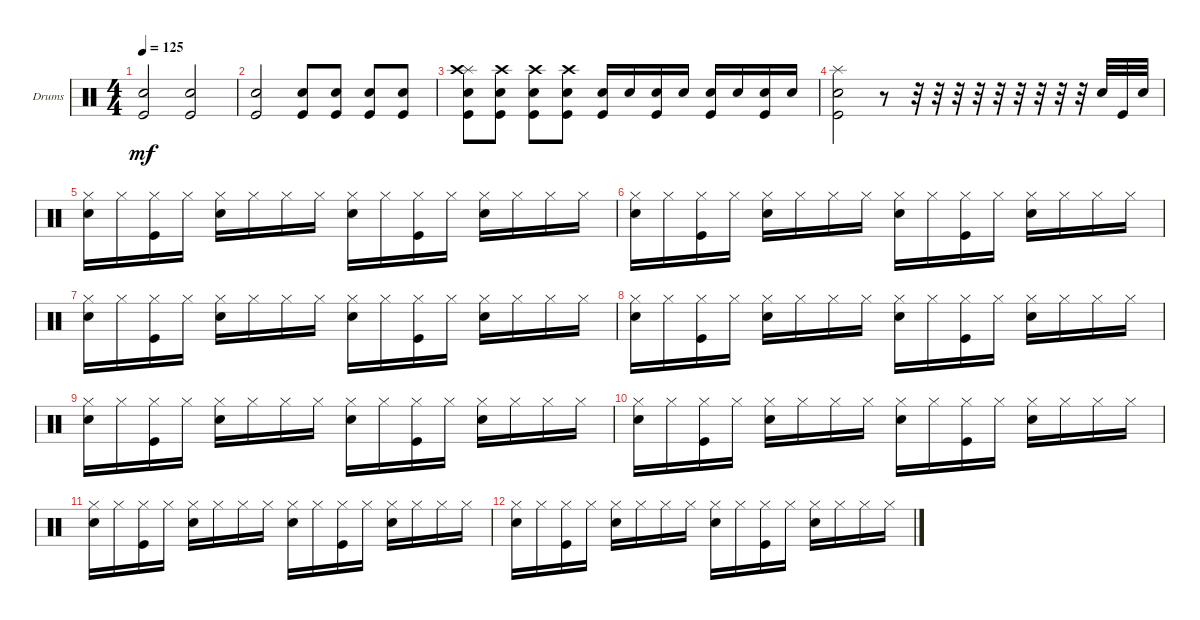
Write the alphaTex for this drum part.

\defaultSystemsLayout 4
\bracketExtendMode groupsimilarinstruments
\firstSystemTrackNameOrientation horizontal
\otherSystemsTrackNameOrientation horizontal
\track ("Drumkit" "Drums") {instrument percussion}
\staff {score}
\articulation defaults
\ts (4 4)
\tempo 125
\clef neutral
\scale
0.472222
\ks c
("Kick (hit)" "Snare (hit) 2").2{dy mf} ("Kick (hit)" "Snare (hit) 2").2 |
\scale
0.263889 ("Kick (hit)" "Snare (hit) 2").2 ("Kick (hit)" "Snare (hit) 2").8 ("Kick (hit)" "Snare (hit) 2").8 ("Kick (hit)" "Snare (hit) 2").8 ("Kick (hit)" "Snare (hit) 2").8 |
\scale
0.263889 ("Kick (hit)" "Snare (hit) 2" "Splash (hit)" "Crash high (hit)").8 ("Kick (hit)" "Snare (hit) 2" "Crash high (hit)").8 ("Kick (hit)" "Snare (hit) 2" "Crash high (hit)").8 ("Kick (hit)" "Snare (hit) 2" "Crash high (hit)").8 ("Kick (hit)" "Snare (hit) 2").16 "Snare (hit) 2".16 ("Kick (hit)" "Snare (hit) 2").16 "Snare (hit) 2".16 ("Kick (hit)" "Snare (hit) 2").16 "Snare (hit) 2".16 ("Kick (hit)" "Snare (hit) 2").16 "Snare (hit) 2".16 |
("Kick (hit)" "Snare (hit) 2" "Splash (hit)").2 r.8 r.32 r.32 r.32 r.32 r.32 r.32 r.32 r.32 r.32 "Snare (hit) 2".32 "Kick (hit)".32 "Snare (hit) 2".32 |
("Hi-Hat (closed)" "Snare (hit) 2").16 "Hi-Hat (closed)".16 ("Hi-Hat (closed)" "Kick (hit)").16 "Hi-Hat (closed)".16 ("Hi-Hat (closed)" "Snare (hit) 2").16 "Hi-Hat (closed)".16 "Hi-Hat (closed)".16 "Hi-Hat (closed)".16 ("Hi-Hat (closed)" "Snare (hit) 2").16 "Hi-Hat (closed)".16 ("Hi-Hat (closed)" "Kick (hit)").16 "Hi-Hat (closed)".16 ("Hi-Hat (closed)" "Snare (hit) 2").16 "Hi-Hat (closed)".16 "Hi-Hat (closed)".16 "Hi-Hat (closed)".16 |
("Hi-Hat (closed)" "Snare (hit) 2").16 "Hi-Hat (closed)".16 ("Hi-Hat (closed)" "Kick (hit)").16 "Hi-Hat (closed)".16 ("Hi-Hat (closed)" "Snare (hit) 2").16 "Hi-Hat (closed)".16 "Hi-Hat (closed)".16 "Hi-Hat (closed)".16 ("Hi-Hat (closed)" "Snare (hit) 2").16 "Hi-Hat (closed)".16 ("Hi-Hat (closed)" "Kick (hit)").16 "Hi-Hat (closed)".16 ("Hi-Hat (closed)" "Snare (hit) 2").16 "Hi-Hat (closed)".16 "Hi-Hat (closed)".16 "Hi-Hat (closed)".16 |
("Hi-Hat (closed)" "Snare (hit) 2").16 "Hi-Hat (closed)".16 ("Hi-Hat (closed)" "Kick (hit)").16 "Hi-Hat (closed)".16 ("Hi-Hat (closed)" "Snare (hit) 2").16 "Hi-Hat (closed)".16 "Hi-Hat (closed)".16 "Hi-Hat (closed)".16 ("Hi-Hat (closed)" "Snare (hit) 2").16 "Hi-Hat (closed)".16 ("Hi-Hat (closed)" "Kick (hit)").16 "Hi-Hat (closed)".16 ("Hi-Hat (closed)" "Snare (hit) 2").16 "Hi-Hat (closed)".16 "Hi-Hat (closed)".16 "Hi-Hat (closed)".16 |
("Hi-Hat (closed)" "Snare (hit) 2").16 "Hi-Hat (closed)".16 ("Hi-Hat (closed)" "Kick (hit)").16 "Hi-Hat (closed)".16 ("Hi-Hat (closed)" "Snare (hit) 2").16 "Hi-Hat (closed)".16 "Hi-Hat (closed)".16 "Hi-Hat (closed)".16 ("Hi-Hat (closed)" "Snare (hit) 2").16 "Hi-Hat (closed)".16 ("Hi-Hat (closed)" "Kick (hit)").16 "Hi-Hat (closed)".16 ("Hi-Hat (closed)" "Snare (hit) 2").16 "Hi-Hat (closed)".16 "Hi-Hat (closed)".16 "Hi-Hat (closed)".16 |
("Hi-Hat (closed)" "Snare (hit) 2").16 "Hi-Hat (closed)".16 ("Hi-Hat (closed)" "Kick (hit)").16 "Hi-Hat (closed)".16 ("Hi-Hat (closed)" "Snare (hit) 2").16 "Hi-Hat (closed)".16 "Hi-Hat (closed)".16 "Hi-Hat (closed)".16 ("Hi-Hat (closed)" "Snare (hit) 2").16 "Hi-Hat (closed)".16 ("Hi-Hat (closed)" "Kick (hit)").16 "Hi-Hat (closed)".16 ("Hi-Hat (closed)" "Snare (hit) 2").16 "Hi-Hat (closed)".16 "Hi-Hat (closed)".16 "Hi-Hat (closed)".16 |
("Hi-Hat (closed)" "Snare (hit) 2").16 "Hi-Hat (closed)".16 ("Hi-Hat (closed)" "Kick (hit)").16 "Hi-Hat (closed)".16 ("Hi-Hat (closed)" "Snare (hit) 2").16 "Hi-Hat (closed)".16 "Hi-Hat (closed)".16 "Hi-Hat (closed)".16 ("Hi-Hat (closed)" "Snare (hit) 2").16 "Hi-Hat (closed)".16 ("Hi-Hat (closed)" "Kick (hit)").16 "Hi-Hat (closed)".16 ("Hi-Hat (closed)" "Snare (hit) 2").16 "Hi-Hat (closed)".16 "Hi-Hat (closed)".16 "Hi-Hat (closed)".16 |
("Hi-Hat (closed)" "Snare (hit) 2").16 "Hi-Hat (closed)".16 ("Hi-Hat (closed)" "Kick (hit)").16 "Hi-Hat (closed)".16 ("Hi-Hat (closed)" "Snare (hit) 2").16 "Hi-Hat (closed)".16 "Hi-Hat (closed)".16 "Hi-Hat (closed)".16 ("Hi-Hat (closed)" "Snare (hit) 2").16 "Hi-Hat (closed)".16 ("Hi-Hat (closed)" "Kick (hit)").16 "Hi-Hat (closed)".16 ("Hi-Hat (closed)" "Snare (hit) 2").16 "Hi-Hat (closed)".16 "Hi-Hat (closed)".16 "Hi-Hat (closed)".16 |
("Hi-Hat (closed)" "Snare (hit) 2").16 "Hi-Hat (closed)".16 ("Hi-Hat (closed)" "Kick (hit)").16 "Hi-Hat (closed)".16 ("Hi-Hat (closed)" "Snare (hit) 2").16 "Hi-Hat (closed)".16 "Hi-Hat (closed)".16 "Hi-Hat (closed)".16 ("Hi-Hat (closed)" "Snare (hit) 2").16 "Hi-Hat (closed)".16 ("Hi-Hat (closed)" "Kick (hit)").16 "Hi-Hat (closed)".16 ("Hi-Hat (closed)" "Snare (hit) 2").16 "Hi-Hat (closed)".16 "Hi-Hat (closed)".16 "Hi-Hat (closed)".16
